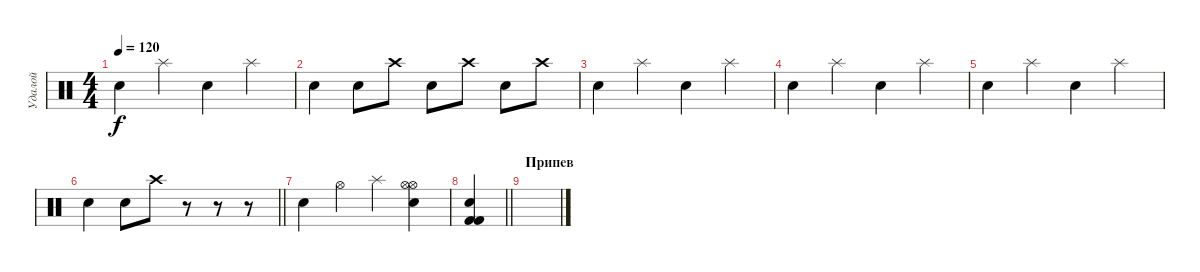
\track ("Удалой" "Удалой") {instrument percussion}
\staff {score}
\articulation defaults
\ts (4 4)
\tempo 120
\clef neutral
\ks c "Snare (hit) 2".4{dy f} "Splash (hit)".4 "Snare (hit) 2".4 "Splash (hit)".4
|
"Snare (hit) 2".4 "Snare (hit) 2".8 "Crash high (hit)".8 "Snare (hit) 2".8 "Crash high (hit)".8 "Snare (hit) 2".8 "Crash high (hit)".8 |
"Snare (hit) 2".4 "Splash (hit)".4 "Snare (hit) 2".4 "Splash (hit)".4 |
"Snare (hit) 2".4 "Splash (hit)".4 "Snare (hit) 2".4 "Splash (hit)".4 |
"Snare (hit) 2".4 "Splash (hit)".4 "Snare (hit) 2".4 "Splash (hit)".4 |
\barLineRight lightlight "Snare (hit) 2".4 "Snare (hit) 2".8 "Crash high (hit)".8
r.8 r.8 r.8 |
"Snare (hit) 2".4 "Hi-Hat (open)".4 "Splash (hit)".4 ("Snare (hit) 2" "Hi-Hat (open)" "Hi-Hat (open)").4 |
\barLineRight lightlight
("Snare (hit) 2" "Kick (hit) 2" "Kick (hit) 2").4 |
\section ("" "Припев")
